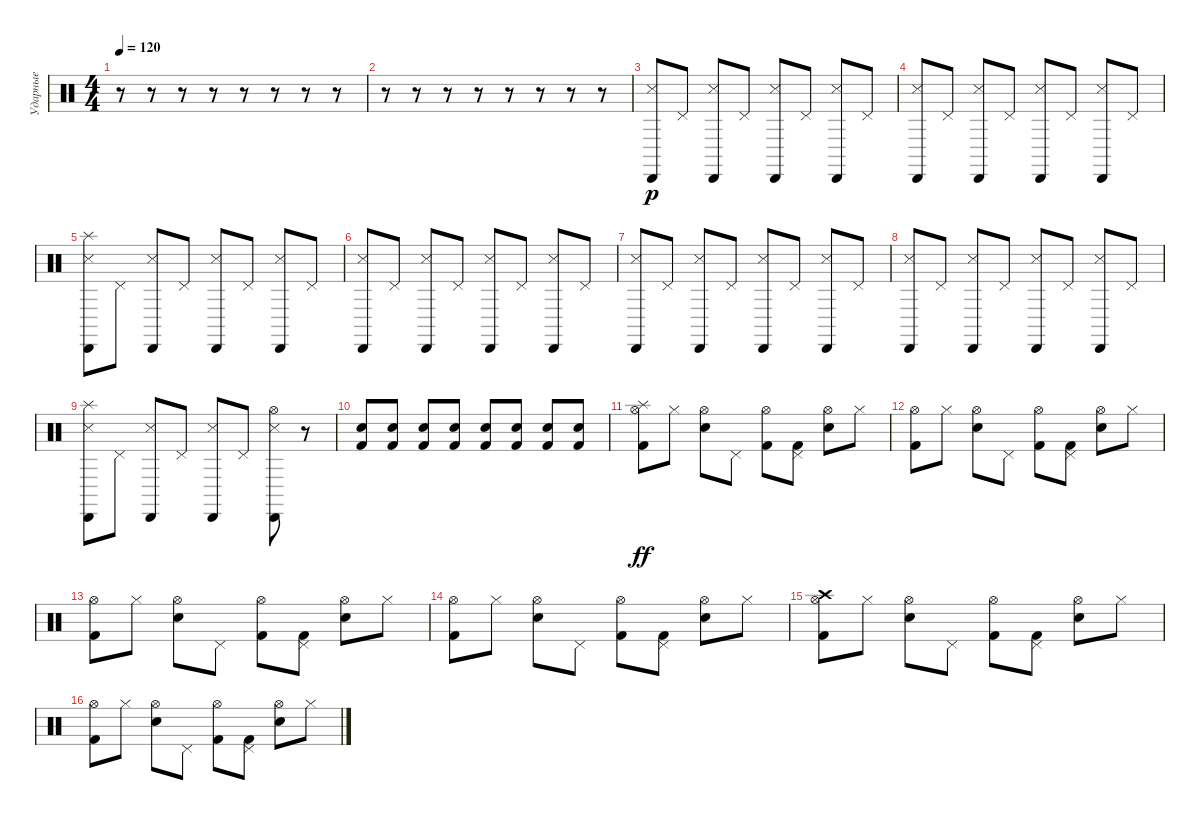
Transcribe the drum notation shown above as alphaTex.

\track ("Ударные" "Ударные") {instrument percussion}
\staff {score}
\articulation defaults
\ts (4 4)
\tempo 120
\clef neutral
\ks c
r.8{dy p} r.8 r.8 r.8 r.8 r.8 r.8 r.8 |
r.8 r.8 r.8 r.8 r.8 r.8 r.8 r.8 |
("Snare (side stick) 3" "Cabasa (hit)").8 "Pedal Hi-Hat (hit)".8 ("Snare (side stick) 3" "Cabasa (hit)").8 "Pedal Hi-Hat (hit)".8 ("Snare (side stick) 3" "Cabasa (hit)").8 "Pedal Hi-Hat (hit)".8 ("Snare (side stick) 3" "Cabasa (hit)").8 "Pedal Hi-Hat (hit)".8 |
("Snare (side stick) 3" "Cabasa (hit)").8 "Pedal Hi-Hat (hit)".8 ("Snare (side stick) 3" "Cabasa (hit)").8 "Pedal Hi-Hat (hit)".8 ("Snare (side stick) 3" "Cabasa (hit)").8 "Pedal Hi-Hat (hit)".8 ("Snare (side stick) 3" "Cabasa (hit)").8 "Pedal Hi-Hat (hit)".8 |
("Splash (hit)" "Snare (side stick) 3" "Cabasa (hit)").8 "Pedal Hi-Hat (hit)".8 ("Snare (side stick) 3" "Cabasa (hit)").8 "Pedal Hi-Hat (hit)".8 ("Snare (side stick) 3" "Cabasa (hit)").8 "Pedal Hi-Hat (hit)".8 ("Snare (side stick) 3" "Cabasa (hit)").8 "Pedal Hi-Hat (hit)".8 |
("Snare (side stick) 3" "Cabasa (hit)").8 "Pedal Hi-Hat (hit)".8 ("Snare (side stick) 3" "Cabasa (hit)").8 "Pedal Hi-Hat (hit)".8 ("Snare (side stick) 3" "Cabasa (hit)").8 "Pedal Hi-Hat (hit)".8 ("Snare (side stick) 3" "Cabasa (hit)").8 "Pedal Hi-Hat (hit)".8 |
("Snare (side stick) 3" "Cabasa (hit)").8 "Pedal Hi-Hat (hit)".8 ("Snare (side stick) 3" "Cabasa (hit)").8 "Pedal Hi-Hat (hit)".8 ("Snare (side stick) 3" "Cabasa (hit)").8 "Pedal Hi-Hat (hit)".8 ("Snare (side stick) 3" "Cabasa (hit)").8 "Pedal Hi-Hat (hit)".8 |
("Snare (side stick) 3" "Cabasa (hit)").8 "Pedal Hi-Hat (hit)".8 ("Snare (side stick) 3" "Cabasa (hit)").8 "Pedal Hi-Hat (hit)".8 ("Snare (side stick) 3" "Cabasa (hit)").8 "Pedal Hi-Hat (hit)".8 ("Snare (side stick) 3" "Cabasa (hit)").8 "Pedal Hi-Hat (hit)".8 |
("Splash (hit)" "Snare (side stick) 3" "Cabasa (hit)").8 "Pedal Hi-Hat (hit)".8 ("Snare (side stick) 3" "Cabasa (hit)").8 "Pedal Hi-Hat (hit)".8 ("Snare (side stick) 3" "Cabasa (hit)").8 "Pedal Hi-Hat (hit)".8 ("Snare (side stick) 3" "Hi-Hat (open)" "Cabasa (hit)").8 r.8 |
("Kick (hit) 2" "Electric Snare (hit)").8 ("Kick (hit) 2" "Electric Snare (hit)").8 ("Kick (hit) 2" "Electric Snare (hit)").8 ("Kick (hit) 2" "Electric Snare (hit)").8 ("Kick (hit) 2" "Electric Snare (hit)").8 ("Kick (hit) 2" "Electric Snare (hit)").8 ("Kick (hit) 2" "Electric Snare (hit)").8 ("Kick (hit) 2" "Electric Snare (hit)").8 |
("Hi-Hat (open)" "Splash (hit)" "Kick (hit) 2").8{dy ff} "Hi-Hat (closed)".8 ("Hi-Hat (open)" "Electric Snare (hit)").8 "Pedal Hi-Hat (hit)".8 ("Hi-Hat (open)" "Kick (hit) 2").8 ("Pedal Hi-Hat (hit)" "Kick (hit) 2").8 ("Hi-Hat (open)" "Electric Snare (hit)").8 "Hi-Hat (closed)".8 |
("Hi-Hat (open)" "Kick (hit) 2").8 "Hi-Hat (closed)".8 ("Hi-Hat (open)" "Electric Snare (hit)").8 "Pedal Hi-Hat (hit)".8 ("Hi-Hat (open)" "Kick (hit) 2").8 ("Pedal Hi-Hat (hit)" "Kick (hit) 2").8 ("Hi-Hat (open)" "Electric Snare (hit)").8 "Hi-Hat (closed)".8 |
("Hi-Hat (open)" "Kick (hit) 2").8 "Hi-Hat (closed)".8 ("Hi-Hat (open)" "Electric Snare (hit)").8 "Pedal Hi-Hat (hit)".8 ("Hi-Hat (open)" "Kick (hit) 2").8 ("Pedal Hi-Hat (hit)" "Kick (hit) 2").8 ("Hi-Hat (open)" "Electric Snare (hit)").8 "Hi-Hat (closed)".8 |
("Hi-Hat (open)" "Kick (hit) 2").8 "Hi-Hat (closed)".8 ("Hi-Hat (open)" "Electric Snare (hit)").8 "Pedal Hi-Hat (hit)".8 ("Hi-Hat (open)" "Kick (hit) 2").8 ("Pedal Hi-Hat (hit)" "Kick (hit) 2").8 ("Hi-Hat (open)" "Electric Snare (hit)").8 "Hi-Hat (closed)".8 |
("Hi-Hat (open)" "Crash high (hit)" "Kick (hit) 2").8 "Hi-Hat (closed)".8 ("Hi-Hat (open)" "Electric Snare (hit)").8 "Pedal Hi-Hat (hit)".8 ("Hi-Hat (open)" "Kick (hit) 2").8 ("Pedal Hi-Hat (hit)" "Kick (hit) 2").8 ("Hi-Hat (open)" "Electric Snare (hit)").8 "Hi-Hat (closed)".8 |
("Hi-Hat (open)" "Kick (hit) 2").8 "Hi-Hat (closed)".8 ("Hi-Hat (open)" "Electric Snare (hit)").8 "Pedal Hi-Hat (hit)".8 ("Hi-Hat (open)" "Kick (hit) 2").8 ("Pedal Hi-Hat (hit)" "Kick (hit) 2").8 ("Hi-Hat (open)" "Electric Snare (hit)").8 "Hi-Hat (closed)".8
